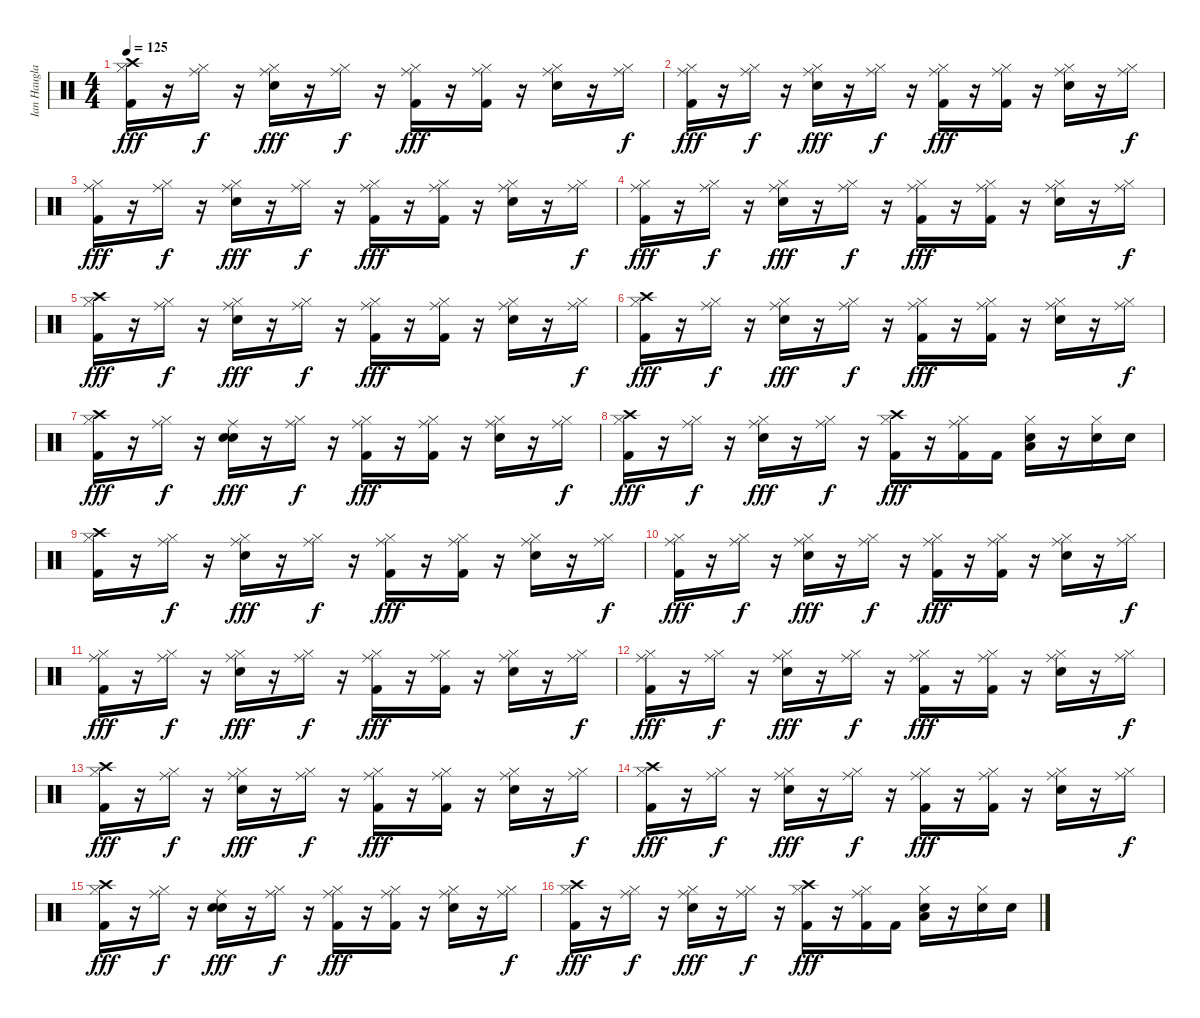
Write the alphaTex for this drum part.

\track ("Ian Haugland" "Ian Haugla") {instrument percussion}
\staff {score}
\articulation defaults
\ts (4 4)
\tempo 125
\clef neutral
\ks c
("Crash high (hit)" "Hi-Hat (closed)" "Kick (hit) 2").16{dy fff} r.16 ("Ride (middle)" "Hi-Hat (closed)").16{dy f} r.16 ("Ride (middle)" "Hi-Hat (closed)" "Electric Snare (hit)").16{dy fff} r.16 ("Ride (middle)" "Hi-Hat (closed)").16{dy f} r.16 ("Ride (middle)" "Hi-Hat (closed)" "Kick (hit) 2").16{dy fff} r.16 ("Ride (middle)" "Hi-Hat (closed)" "Kick (hit) 2").16 r.16 ("Ride (middle)" "Hi-Hat (closed)" "Electric Snare (hit)").16 r.16 ("Ride (middle)" "Hi-Hat (closed)").16{dy f} |
("Ride (middle)" "Hi-Hat (closed)" "Kick (hit) 2").16{dy fff} r.16 ("Ride (middle)" "Hi-Hat (closed)").16{dy f} r.16 ("Ride (middle)" "Hi-Hat (closed)" "Electric Snare (hit)").16{dy fff} r.16 ("Ride (middle)" "Hi-Hat (closed)").16{dy f} r.16 ("Ride (middle)" "Hi-Hat (closed)" "Kick (hit) 2").16{dy fff} r.16 ("Ride (middle)" "Hi-Hat (closed)" "Kick (hit) 2").16 r.16 ("Ride (middle)" "Hi-Hat (closed)" "Electric Snare (hit)").16 r.16 ("Ride (middle)" "Hi-Hat (closed)").16{dy f} |
("Ride (middle)" "Hi-Hat (closed)" "Kick (hit) 2").16{dy fff} r.16 ("Ride (middle)" "Hi-Hat (closed)").16{dy f} r.16 ("Ride (middle)" "Hi-Hat (closed)" "Electric Snare (hit)").16{dy fff} r.16 ("Ride (middle)" "Hi-Hat (closed)").16{dy f} r.16 ("Ride (middle)" "Hi-Hat (closed)" "Kick (hit) 2").16{dy fff} r.16 ("Ride (middle)" "Hi-Hat (closed)" "Kick (hit) 2").16 r.16 ("Ride (middle)" "Hi-Hat (closed)" "Electric Snare (hit)").16 r.16 ("Ride (middle)" "Hi-Hat (closed)").16{dy f} |
("Ride (middle)" "Hi-Hat (closed)" "Kick (hit) 2").16{dy fff} r.16 ("Ride (middle)" "Hi-Hat (closed)").16{dy f} r.16 ("Ride (middle)" "Hi-Hat (closed)" "Electric Snare (hit)").16{dy fff} r.16 ("Ride (middle)" "Hi-Hat (closed)").16{dy f} r.16 ("Ride (middle)" "Hi-Hat (closed)" "Kick (hit) 2").16{dy fff} r.16 ("Ride (middle)" "Hi-Hat (closed)" "Kick (hit) 2").16 r.16 ("Ride (middle)" "Hi-Hat (closed)" "Electric Snare (hit)").16 r.16 ("Ride (middle)" "Hi-Hat (closed)").16{dy f} |
("Crash high (hit)" "Hi-Hat (closed)" "Kick (hit) 2").16{dy fff} r.16 ("Ride (middle)" "Hi-Hat (closed)").16{dy f} r.16 ("Ride (middle)" "Hi-Hat (closed)" "Electric Snare (hit)").16{dy fff} r.16 ("Ride (middle)" "Hi-Hat (closed)").16{dy f} r.16 ("Ride (middle)" "Hi-Hat (closed)" "Kick (hit) 2").16{dy fff} r.16 ("Ride (middle)" "Hi-Hat (closed)" "Kick (hit) 2").16 r.16 ("Ride (middle)" "Hi-Hat (closed)" "Electric Snare (hit)").16 r.16 ("Ride (middle)" "Hi-Hat (closed)").16{dy f} |
("Crash high (hit)" "Hi-Hat (closed)" "Kick (hit) 2").16{dy fff} r.16 ("Ride (middle)" "Hi-Hat (closed)").16{dy f} r.16 ("Ride (middle)" "Hi-Hat (closed)" "Electric Snare (hit)").16{dy fff} r.16 ("Ride (middle)" "Hi-Hat (closed)").16{dy f} r.16 ("Ride (middle)" "Hi-Hat (closed)" "Kick (hit) 2").16{dy fff} r.16 ("Ride (middle)" "Hi-Hat (closed)" "Kick (hit) 2").16 r.16 ("Ride (middle)" "Hi-Hat (closed)" "Electric Snare (hit)").16 r.16 ("Ride (middle)" "Hi-Hat (closed)").16{dy f} |
("Crash high (hit)" "Hi-Hat (closed)" "Kick (hit) 2").16{dy fff} r.16 ("Ride (middle)" "Hi-Hat (closed)").16{dy f} r.16 ("Ride (middle)" "Snare (hit)" "Electric Snare (hit)").16{dy fff} r.16 ("Ride (middle)" "Hi-Hat (closed)").16{dy f} r.16 ("Ride (middle)" "Hi-Hat (closed)" "Kick (hit) 2").16{dy fff} r.16 ("Ride (middle)" "Hi-Hat (closed)" "Kick (hit) 2").16 r.16 ("Ride (middle)" "Hi-Hat (closed)" "Electric Snare (hit)").16 r.16 ("Ride (middle)" "Hi-Hat (closed)").16{dy f} |
("Crash high (hit)" "Hi-Hat (closed)" "Kick (hit) 2").16{dy fff} r.16 ("Ride (middle)" "Hi-Hat (closed)").16{dy f} r.16 ("Ride (middle)" "Hi-Hat (closed)" "Electric Snare (hit)").16{dy fff} r.16 ("Ride (middle)" "Hi-Hat (closed)").16{dy f} r.16 ("Crash high (hit)" "Hi-Hat (closed)" "Kick (hit) 2").16{dy fff} r.16 ("Ride (middle)" "Hi-Hat (closed)" "Kick (hit) 2").16 "Kick (hit) 2".16 ("Hi-Hat (closed)" "Low Floor Tom (hit)" "Electric Snare (hit)").16 r.16 ("Hi-Hat (closed)" "Electric Snare (hit)").16 "Electric Snare (hit)".16 |
("Crash high (hit)" "Hi-Hat (closed)" "Kick (hit) 2").16 r.16 ("Ride (middle)" "Hi-Hat (closed)").16{dy f} r.16 ("Ride (middle)" "Hi-Hat (closed)" "Electric Snare (hit)").16{dy fff} r.16 ("Ride (middle)" "Hi-Hat (closed)").16{dy f} r.16 ("Ride (middle)" "Hi-Hat (closed)" "Kick (hit) 2").16{dy fff} r.16 ("Ride (middle)" "Hi-Hat (closed)" "Kick (hit) 2").16 r.16 ("Ride (middle)" "Hi-Hat (closed)" "Electric Snare (hit)").16 r.16 ("Ride (middle)" "Hi-Hat (closed)").16{dy f} |
("Ride (middle)" "Hi-Hat (closed)" "Kick (hit) 2").16{dy fff} r.16 ("Ride (middle)" "Hi-Hat (closed)").16{dy f} r.16 ("Ride (middle)" "Hi-Hat (closed)" "Electric Snare (hit)").16{dy fff} r.16 ("Ride (middle)" "Hi-Hat (closed)").16{dy f} r.16 ("Ride (middle)" "Hi-Hat (closed)" "Kick (hit) 2").16{dy fff} r.16 ("Ride (middle)" "Hi-Hat (closed)" "Kick (hit) 2").16 r.16 ("Ride (middle)" "Hi-Hat (closed)" "Electric Snare (hit)").16 r.16 ("Ride (middle)" "Hi-Hat (closed)").16{dy f} |
("Ride (middle)" "Hi-Hat (closed)" "Kick (hit) 2").16{dy fff} r.16 ("Ride (middle)" "Hi-Hat (closed)").16{dy f} r.16 ("Ride (middle)" "Hi-Hat (closed)" "Electric Snare (hit)").16{dy fff} r.16 ("Ride (middle)" "Hi-Hat (closed)").16{dy f} r.16 ("Ride (middle)" "Hi-Hat (closed)" "Kick (hit) 2").16{dy fff} r.16 ("Ride (middle)" "Hi-Hat (closed)" "Kick (hit) 2").16 r.16 ("Ride (middle)" "Hi-Hat (closed)" "Electric Snare (hit)").16 r.16 ("Ride (middle)" "Hi-Hat (closed)").16{dy f} |
("Ride (middle)" "Hi-Hat (closed)" "Kick (hit) 2").16{dy fff} r.16 ("Ride (middle)" "Hi-Hat (closed)").16{dy f} r.16 ("Ride (middle)" "Hi-Hat (closed)" "Electric Snare (hit)").16{dy fff} r.16 ("Ride (middle)" "Hi-Hat (closed)").16{dy f} r.16 ("Ride (middle)" "Hi-Hat (closed)" "Kick (hit) 2").16{dy fff} r.16 ("Ride (middle)" "Hi-Hat (closed)" "Kick (hit) 2").16 r.16 ("Ride (middle)" "Hi-Hat (closed)" "Electric Snare (hit)").16 r.16 ("Ride (middle)" "Hi-Hat (closed)").16{dy f} |
("Crash high (hit)" "Hi-Hat (closed)" "Kick (hit) 2").16{dy fff} r.16 ("Ride (middle)" "Hi-Hat (closed)").16{dy f} r.16 ("Ride (middle)" "Hi-Hat (closed)" "Electric Snare (hit)").16{dy fff} r.16 ("Ride (middle)" "Hi-Hat (closed)").16{dy f} r.16 ("Ride (middle)" "Hi-Hat (closed)" "Kick (hit) 2").16{dy fff} r.16 ("Ride (middle)" "Hi-Hat (closed)" "Kick (hit) 2").16 r.16 ("Ride (middle)" "Hi-Hat (closed)" "Electric Snare (hit)").16 r.16 ("Ride (middle)" "Hi-Hat (closed)").16{dy f} |
("Crash high (hit)" "Hi-Hat (closed)" "Kick (hit) 2").16{dy fff} r.16 ("Ride (middle)" "Hi-Hat (closed)").16{dy f} r.16 ("Ride (middle)" "Hi-Hat (closed)" "Electric Snare (hit)").16{dy fff} r.16 ("Ride (middle)" "Hi-Hat (closed)").16{dy f} r.16 ("Ride (middle)" "Hi-Hat (closed)" "Kick (hit) 2").16{dy fff} r.16 ("Ride (middle)" "Hi-Hat (closed)" "Kick (hit) 2").16 r.16 ("Ride (middle)" "Hi-Hat (closed)" "Electric Snare (hit)").16 r.16 ("Ride (middle)" "Hi-Hat (closed)").16{dy f} |
("Crash high (hit)" "Hi-Hat (closed)" "Kick (hit) 2").16{dy fff} r.16 ("Ride (middle)" "Hi-Hat (closed)").16{dy f} r.16 ("Ride (middle)" "Snare (hit)" "Electric Snare (hit)").16{dy fff} r.16 ("Ride (middle)" "Hi-Hat (closed)").16{dy f} r.16 ("Ride (middle)" "Hi-Hat (closed)" "Kick (hit) 2").16{dy fff} r.16 ("Ride (middle)" "Hi-Hat (closed)" "Kick (hit) 2").16 r.16 ("Ride (middle)" "Hi-Hat (closed)" "Electric Snare (hit)").16 r.16 ("Ride (middle)" "Hi-Hat (closed)").16{dy f} |
("Crash high (hit)" "Hi-Hat (closed)" "Kick (hit) 2").16{dy fff} r.16 ("Ride (middle)" "Hi-Hat (closed)").16{dy f} r.16 ("Ride (middle)" "Hi-Hat (closed)" "Electric Snare (hit)").16{dy fff} r.16 ("Ride (middle)" "Hi-Hat (closed)").16{dy f} r.16 ("Crash high (hit)" "Hi-Hat (closed)" "Kick (hit) 2").16{dy fff} r.16 ("Ride (middle)" "Hi-Hat (closed)" "Kick (hit) 2").16 "Kick (hit) 2".16 ("Hi-Hat (closed)" "Low Floor Tom (hit)" "Electric Snare (hit)").16 r.16 ("Hi-Hat (closed)" "Electric Snare (hit)").16 "Electric Snare (hit)".16
